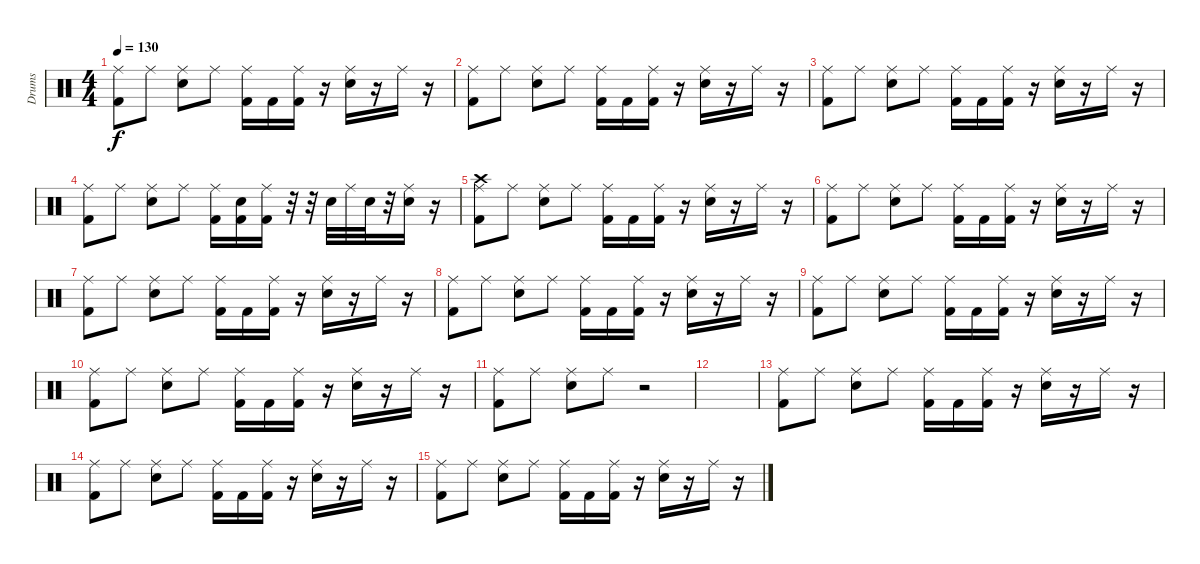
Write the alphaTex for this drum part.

\track ("Drums" "Drums") {instrument percussion}
\staff {score}
\articulation defaults
\ts (4 4)
\tempo 130
\clef neutral
\ks c
("Ride (middle)" "Kick (hit) 2").8{dy f} "Ride (middle)".8 ("Ride (middle)" "Electric Snare (hit)").8 "Ride (middle)".8 ("Ride (middle)" "Kick (hit) 2").16 "Kick (hit) 2".16 ("Ride (middle)" "Kick (hit) 2").16 r.16 ("Ride (middle)" "Electric Snare (hit)").16 r.16 "Ride (middle)".16 r.16 |
("Ride (middle)" "Kick (hit) 2").8 "Ride (middle)".8 ("Ride (middle)" "Electric Snare (hit)").8 "Ride (middle)".8 ("Ride (middle)" "Kick (hit) 2").16 "Kick (hit) 2".16 ("Ride (middle)" "Kick (hit) 2").16 r.16 ("Ride (middle)" "Electric Snare (hit)").16 r.16 "Ride (middle)".16 r.16 |
("Ride (middle)" "Kick (hit) 2").8 "Ride (middle)".8 ("Ride (middle)" "Electric Snare (hit)").8 "Ride (middle)".8 ("Ride (middle)" "Kick (hit) 2").16 "Kick (hit) 2".16 ("Ride (middle)" "Kick (hit) 2").16 r.16 ("Ride (middle)" "Electric Snare (hit)").16 r.16 "Ride (middle)".16 r.16 |
("Ride (middle)" "Kick (hit) 2").8 "Ride (middle)".8 ("Ride (middle)" "Electric Snare (hit)").8 "Ride (middle)".8 ("Ride (middle)" "Kick (hit) 2").16 ("Electric Snare (hit)" "Kick (hit) 2").16 ("Ride (middle)" "Kick (hit) 2").16 r.32 r.32 "Electric Snare (hit)".32 "Ride (middle)".32 "Electric Snare (hit)".32 r.32 ("Ride (middle)" "Electric Snare (hit)").16 r.16 |
("Ride (middle)" "Crash high (hit)" "Kick (hit) 2").8 "Ride (middle)".8 ("Ride (middle)" "Electric Snare (hit)").8 "Ride (middle)".8 ("Ride (middle)" "Kick (hit) 2").16 "Kick (hit) 2".16 ("Ride (middle)" "Kick (hit) 2").16 r.16 ("Ride (middle)" "Electric Snare (hit)").16 r.16 "Ride (middle)".16 r.16 |
("Ride (middle)" "Kick (hit) 2").8 "Ride (middle)".8 ("Ride (middle)" "Electric Snare (hit)").8 "Ride (middle)".8 ("Ride (middle)" "Kick (hit) 2").16 "Kick (hit) 2".16 ("Ride (middle)" "Kick (hit) 2").16 r.16 ("Ride (middle)" "Electric Snare (hit)").16 r.16 "Ride (middle)".16 r.16 |
("Ride (middle)" "Kick (hit) 2").8 "Ride (middle)".8 ("Ride (middle)" "Electric Snare (hit)").8 "Ride (middle)".8 ("Ride (middle)" "Kick (hit) 2").16 "Kick (hit) 2".16 ("Ride (middle)" "Kick (hit) 2").16 r.16 ("Ride (middle)" "Electric Snare (hit)").16 r.16 "Ride (middle)".16 r.16 |
("Ride (middle)" "Kick (hit) 2").8 "Ride (middle)".8 ("Ride (middle)" "Electric Snare (hit)").8 "Ride (middle)".8 ("Ride (middle)" "Kick (hit) 2").16 "Kick (hit) 2".16 ("Ride (middle)" "Kick (hit) 2").16 r.16 ("Ride (middle)" "Electric Snare (hit)").16 r.16 "Ride (middle)".16 r.16 |
("Ride (middle)" "Kick (hit) 2").8 "Ride (middle)".8 ("Ride (middle)" "Electric Snare (hit)").8 "Ride (middle)".8 ("Ride (middle)" "Kick (hit) 2").16 "Kick (hit) 2".16 ("Ride (middle)" "Kick (hit) 2").16 r.16 ("Ride (middle)" "Electric Snare (hit)").16 r.16 "Ride (middle)".16 r.16 |
("Ride (middle)" "Kick (hit) 2").8 "Ride (middle)".8 ("Ride (middle)" "Electric Snare (hit)").8 "Ride (middle)".8 ("Ride (middle)" "Kick (hit) 2").16 "Kick (hit) 2".16 ("Ride (middle)" "Kick (hit) 2").16 r.16 ("Ride (middle)" "Electric Snare (hit)").16 r.16 "Ride (middle)".16 r.16 |
("Ride (middle)" "Kick (hit) 2").8 "Ride (middle)".8 ("Ride (middle)" "Electric Snare (hit)").8 "Ride (middle)".8 r.2 |
|
("Ride (middle)" "Kick (hit) 2").8 "Ride (middle)".8 ("Ride (middle)" "Electric Snare (hit)").8 "Ride (middle)".8 ("Ride (middle)" "Kick (hit) 2").16 "Kick (hit) 2".16 ("Ride (middle)" "Kick (hit) 2").16 r.16 ("Ride (middle)" "Electric Snare (hit)").16 r.16 "Ride (middle)".16 r.16 |
("Ride (middle)" "Kick (hit) 2").8 "Ride (middle)".8 ("Ride (middle)" "Electric Snare (hit)").8 "Ride (middle)".8 ("Ride (middle)" "Kick (hit) 2").16 "Kick (hit) 2".16 ("Ride (middle)" "Kick (hit) 2").16 r.16 ("Ride (middle)" "Electric Snare (hit)").16 r.16 "Ride (middle)".16 r.16 |
("Ride (middle)" "Kick (hit) 2").8 "Ride (middle)".8 ("Ride (middle)" "Electric Snare (hit)").8 "Ride (middle)".8 ("Ride (middle)" "Kick (hit) 2").16 "Kick (hit) 2".16 ("Ride (middle)" "Kick (hit) 2").16 r.16 ("Ride (middle)" "Electric Snare (hit)").16 r.16 "Ride (middle)".16 r.16
